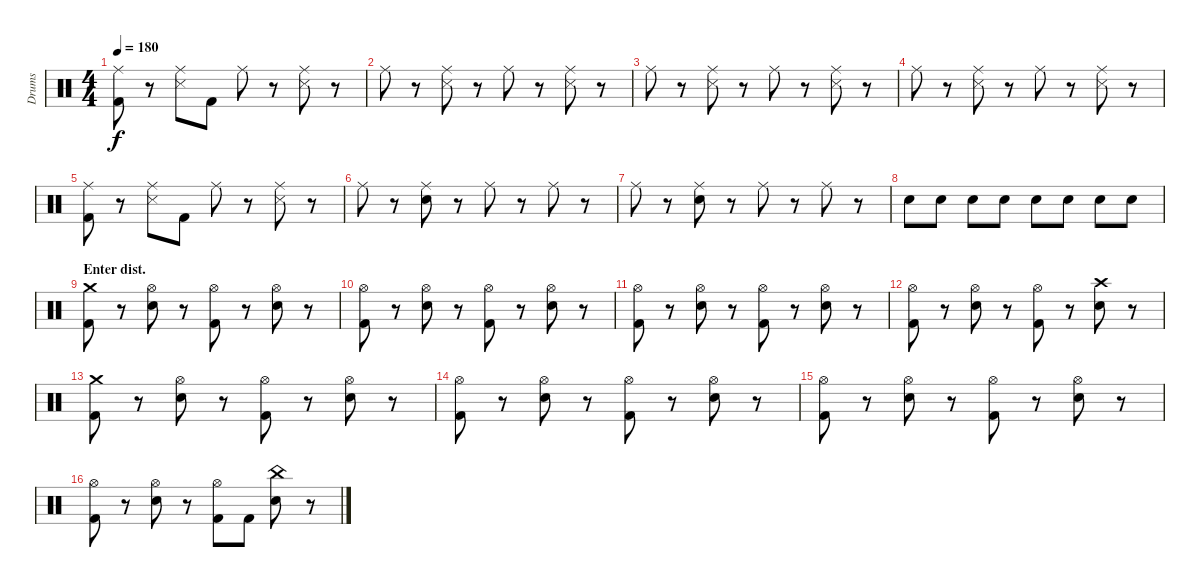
\track ("Drums" "Drums") {instrument percussion}
\staff {score}
\articulation defaults
\ts (4 4)
\tempo 180
\clef neutral
\ks c
("Ride (middle)" "Kick (hit) 2").8{dy f} r.8 ("Ride (middle)" "Snare (side stick) 3").8 "Kick (hit) 2".8 "Ride (middle)".8 r.8 ("Ride (middle)" "Snare (side stick) 3").8 r.8 |
"Ride (middle)".8 r.8 ("Ride (middle)" "Snare (side stick) 3").8 r.8 "Ride (middle)".8 r.8 ("Ride (middle)" "Snare (side stick) 3").8 r.8 |
"Ride (middle)".8 r.8 ("Ride (middle)" "Snare (side stick) 3").8 r.8 "Ride (middle)".8 r.8 ("Ride (middle)" "Snare (side stick) 3").8 r.8 |
"Ride (middle)".8 r.8 ("Ride (middle)" "Snare (side stick) 3").8 r.8 "Ride (middle)".8 r.8 ("Ride (middle)" "Snare (side stick) 3").8 r.8 |
("Ride (middle)" "Kick (hit) 2").8 r.8 ("Ride (middle)" "Snare (side stick) 3").8 "Kick (hit) 2".8 "Ride (middle)".8 r.8 ("Ride (middle)" "Snare (side stick) 3").8 r.8 |
"Ride (middle)".8 r.8 ("Ride (middle)" "Snare (hit) 2").8 r.8 "Ride (middle)".8 r.8 "Ride (middle)".8 r.8 |
"Ride (middle)".8 r.8 ("Ride (middle)" "Snare (hit) 2").8 r.8 "Ride (middle)".8 r.8 "Ride (middle)".8 r.8 |
"Snare (hit) 2".8 "Snare (hit) 2".8 "Snare (hit) 2".8 "Snare (hit) 2".8 "Snare (hit) 2".8 "Snare (hit) 2".8 "Snare (hit) 2".8 "Snare (hit) 2".8 |
\section ("" "Enter dist.")
("Crash medium (hit)" "Kick (hit) 2").8 r.8 ("Hi-Hat (open)" "Snare (hit) 2").8 r.8 ("Hi-Hat (open)" "Kick (hit) 2").8 r.8 ("Hi-Hat (open)" "Snare (hit) 2").8 r.8 |
("Hi-Hat (open)" "Kick (hit) 2").8 r.8 ("Hi-Hat (open)" "Snare (hit) 2").8 r.8 ("Hi-Hat (open)" "Kick (hit) 2").8 r.8 ("Hi-Hat (open)" "Snare (hit) 2").8 r.8 |
("Hi-Hat (open)" "Kick (hit) 2").8 r.8 ("Hi-Hat (open)" "Snare (hit) 2").8 r.8 ("Hi-Hat (open)" "Kick (hit) 2").8 r.8 ("Hi-Hat (open)" "Snare (hit) 2").8 r.8 |
("Hi-Hat (open)" "Kick (hit) 2").8 r.8 ("Hi-Hat (open)" "Snare (hit) 2").8 r.8 ("Hi-Hat (open)" "Kick (hit) 2").8 r.8 ("Crash high (hit)" "Snare (hit) 2").8 r.8 |
("Crash medium (hit)" "Kick (hit) 2").8 r.8 ("Hi-Hat (open)" "Snare (hit) 2").8 r.8 ("Hi-Hat (open)" "Kick (hit) 2").8 r.8 ("Hi-Hat (open)" "Snare (hit) 2").8 r.8 |
("Hi-Hat (open)" "Kick (hit) 2").8 r.8 ("Hi-Hat (open)" "Snare (hit) 2").8 r.8 ("Hi-Hat (open)" "Kick (hit) 2").8 r.8 ("Hi-Hat (open)" "Snare (hit) 2").8 r.8 |
("Hi-Hat (open)" "Kick (hit) 2").8 r.8 ("Hi-Hat (open)" "Snare (hit) 2").8 r.8 ("Hi-Hat (open)" "Kick (hit) 2").8 r.8 ("Hi-Hat (open)" "Snare (hit) 2").8 r.8 |
("Hi-Hat (open)" "Kick (hit) 2").8 r.8 ("Hi-Hat (open)" "Snare (hit) 2").8 r.8 ("Hi-Hat (open)" "Kick (hit) 2").8 "Kick (hit) 2".8 ("China (hit)" "Snare (hit) 2").8 r.8
